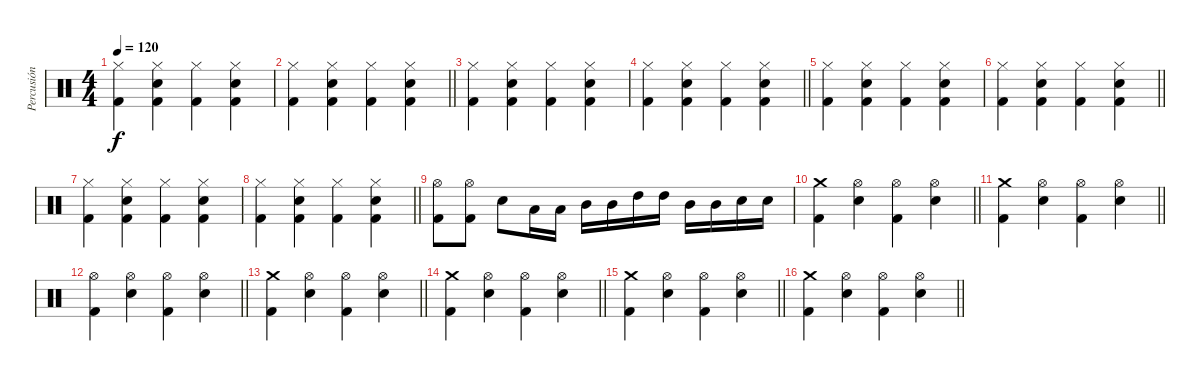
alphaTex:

\track ("Percusión" "Percusión") {instrument percussion}
\staff {score}
\articulation defaults
\ts (4 4)
\tempo 120
\clef neutral
\ks c
("Hi-Hat (closed)" "Kick (hit) 2").4{dy f} ("Hi-Hat (closed)" "Snare (hit) 2" "Kick (hit) 2").4 ("Hi-Hat (closed)" "Kick (hit) 2").4 ("Hi-Hat (closed)" "Snare (hit) 2" "Kick (hit) 2").4 |
\barLineRight lightlight
("Hi-Hat (closed)" "Kick (hit) 2").4 ("Hi-Hat (closed)" "Snare (hit) 2" "Kick (hit) 2").4 ("Hi-Hat (closed)" "Kick (hit) 2").4 ("Hi-Hat (closed)" "Snare (hit) 2" "Kick (hit) 2").4 |
("Hi-Hat (closed)" "Kick (hit) 2").4 ("Hi-Hat (closed)" "Snare (hit) 2" "Kick (hit) 2").4 ("Hi-Hat (closed)" "Kick (hit) 2").4 ("Hi-Hat (closed)" "Snare (hit) 2" "Kick (hit) 2").4 |
\barLineRight lightlight
("Hi-Hat (closed)" "Kick (hit) 2").4 ("Hi-Hat (closed)" "Snare (hit) 2" "Kick (hit) 2").4 ("Hi-Hat (closed)" "Kick (hit) 2").4 ("Hi-Hat (closed)" "Snare (hit) 2" "Kick (hit) 2").4 |
("Hi-Hat (closed)" "Kick (hit) 2").4 ("Hi-Hat (closed)" "Snare (hit) 2" "Kick (hit) 2").4 ("Hi-Hat (closed)" "Kick (hit) 2").4 ("Hi-Hat (closed)" "Snare (hit) 2" "Kick (hit) 2").4 |
\barLineRight lightlight
("Hi-Hat (closed)" "Kick (hit) 2").4 ("Hi-Hat (closed)" "Snare (hit) 2" "Kick (hit) 2").4 ("Hi-Hat (closed)" "Kick (hit) 2").4 ("Hi-Hat (closed)" "Snare (hit) 2" "Kick (hit) 2").4 |
("Hi-Hat (closed)" "Kick (hit) 2").4 ("Hi-Hat (closed)" "Snare (hit) 2" "Kick (hit) 2").4 ("Hi-Hat (closed)" "Kick (hit) 2").4 ("Hi-Hat (closed)" "Snare (hit) 2" "Kick (hit) 2").4 |
\barLineRight lightlight
("Hi-Hat (closed)" "Kick (hit) 2").4 ("Hi-Hat (closed)" "Snare (hit) 2" "Kick (hit) 2").4 ("Hi-Hat (closed)" "Kick (hit) 2").4 ("Hi-Hat (closed)" "Snare (hit) 2" "Kick (hit) 2").4 |
("Hi-Hat (open)" "Kick (hit) 2").8 ("Hi-Hat (open)" "Kick (hit) 2").8 "Snare (hit) 2".8 "Low Tom (hit)".16 "Low Tom (hit)".16 "Mid Tom (hit)".16 "Mid Tom (hit)".16 "High Tom (hit)".16 "High Tom (hit)".16 "Mid Tom (hit)".16 "Mid Tom (hit)".16 "Snare (hit) 2".16 "Snare (hit) 2".16 |
\barLineRight lightlight
("Crash medium (hit)" "Kick (hit) 2").4 ("Hi-Hat (open)" "Snare (hit) 2").4 ("Hi-Hat (open)" "Kick (hit) 2").4 ("Hi-Hat (open)" "Snare (hit) 2").4 |
\barLineRight lightlight
("Crash medium (hit)" "Kick (hit) 2").4 ("Hi-Hat (open)" "Snare (hit) 2").4 ("Hi-Hat (open)" "Kick (hit) 2").4 ("Hi-Hat (open)" "Snare (hit) 2").4 |
\barLineRight lightlight
("Hi-Hat (open)" "Kick (hit) 2").4 ("Hi-Hat (open)" "Snare (hit) 2").4 ("Hi-Hat (open)" "Kick (hit) 2").4 ("Hi-Hat (open)" "Snare (hit) 2").4 |
\barLineRight lightlight
("Crash medium (hit)" "Kick (hit) 2").4 ("Hi-Hat (open)" "Snare (hit) 2").4 ("Hi-Hat (open)" "Kick (hit) 2").4 ("Hi-Hat (open)" "Snare (hit) 2").4 |
\barLineRight lightlight
("Crash medium (hit)" "Kick (hit) 2").4 ("Hi-Hat (open)" "Snare (hit) 2").4 ("Hi-Hat (open)" "Kick (hit) 2").4 ("Hi-Hat (open)" "Snare (hit) 2").4 |
\barLineRight lightlight
("Crash medium (hit)" "Kick (hit) 2").4 ("Hi-Hat (open)" "Snare (hit) 2").4 ("Hi-Hat (open)" "Kick (hit) 2").4 ("Hi-Hat (open)" "Snare (hit) 2").4 |
\barLineRight lightlight
("Crash medium (hit)" "Kick (hit) 2").4 ("Hi-Hat (open)" "Snare (hit) 2").4 ("Hi-Hat (open)" "Kick (hit) 2").4 ("Hi-Hat (open)" "Snare (hit) 2").4
